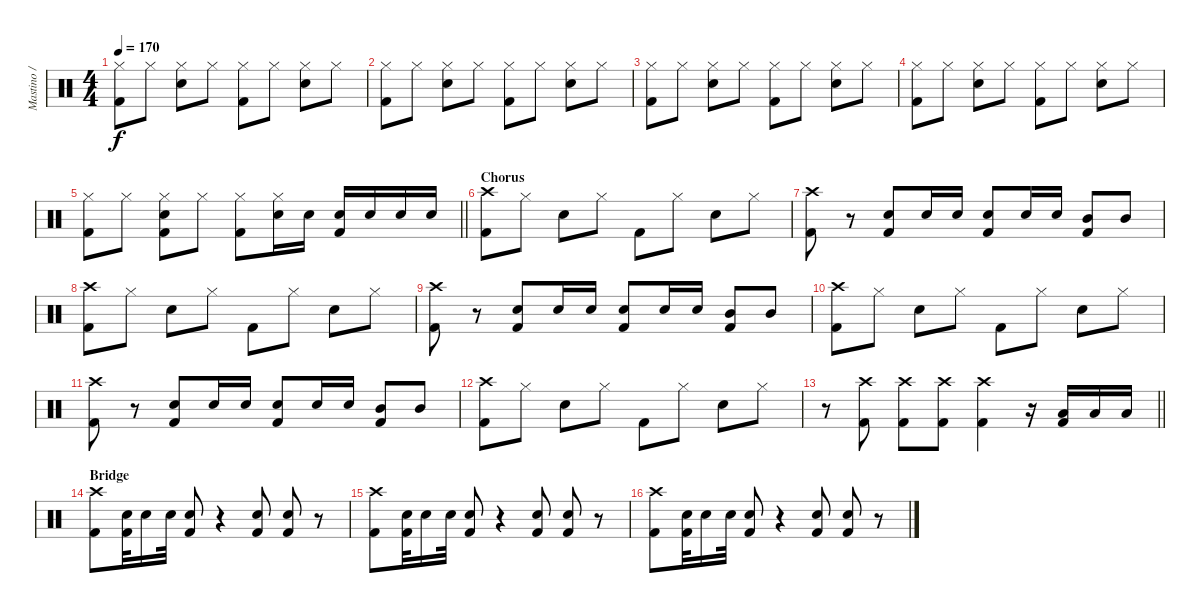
\track ("Mastino / Drums" "Mastino / ") {instrument percussion}
\staff {score}
\articulation defaults
\ts (4 4)
\tempo 170
\clef neutral
\ks c
("Hi-Hat (closed)" "Kick (hit) 2").8{dy f} "Hi-Hat (closed)".8 ("Hi-Hat (closed)" "Electric Snare (hit)").8 "Hi-Hat (closed)".8 ("Hi-Hat (closed)" "Kick (hit) 2").8 "Hi-Hat (closed)".8 ("Hi-Hat (closed)" "Electric Snare (hit)").8 "Hi-Hat (closed)".8 |
("Hi-Hat (closed)" "Kick (hit) 2").8 "Hi-Hat (closed)".8 ("Hi-Hat (closed)" "Electric Snare (hit)").8 "Hi-Hat (closed)".8 ("Hi-Hat (closed)" "Kick (hit) 2").8 "Hi-Hat (closed)".8 ("Hi-Hat (closed)" "Electric Snare (hit)").8 "Hi-Hat (closed)".8 |
("Hi-Hat (closed)" "Kick (hit) 2").8 "Hi-Hat (closed)".8 ("Hi-Hat (closed)" "Electric Snare (hit)").8 "Hi-Hat (closed)".8 ("Hi-Hat (closed)" "Kick (hit) 2").8 "Hi-Hat (closed)".8 ("Hi-Hat (closed)" "Electric Snare (hit)").8 "Hi-Hat (closed)".8 |
("Hi-Hat (closed)" "Kick (hit) 2").8 "Hi-Hat (closed)".8 ("Hi-Hat (closed)" "Electric Snare (hit)").8 "Hi-Hat (closed)".8 ("Hi-Hat (closed)" "Kick (hit) 2").8 "Hi-Hat (closed)".8 ("Hi-Hat (closed)" "Electric Snare (hit)").8 "Hi-Hat (closed)".8 |
\barLineRight lightlight
("Hi-Hat (closed)" "Kick (hit) 2").8 "Hi-Hat (closed)".8 ("Hi-Hat (closed)" "Electric Snare (hit)" "Kick (hit) 2").8 "Hi-Hat (closed)".8 ("Hi-Hat (closed)" "Kick (hit) 2").8 ("Hi-Hat (closed)" "Electric Snare (hit)").16 "Electric Snare (hit)".16 ("Electric Snare (hit)" "Kick (hit) 2").16 "Electric Snare (hit)".16 "Electric Snare (hit)".16 "Electric Snare (hit)".16 |
\section ("" "Chorus")
("Crash high (hit)" "Kick (hit) 2").8 "Hi-Hat (closed)".8 "Electric Snare (hit)".8 "Hi-Hat (closed)".8 "Kick (hit) 2".8 "Hi-Hat (closed)".8 "Electric Snare (hit)".8 "Hi-Hat (closed)".8 |
("Crash high (hit)" "Kick (hit) 2").8 r.8 ("Electric Snare (hit)" "Kick (hit) 2").8 "Electric Snare (hit)".16 "Electric Snare (hit)".16 ("Electric Snare (hit)" "Kick (hit) 2").8 "Electric Snare (hit)".16 "Electric Snare (hit)".16 ("Mid Tom (hit)" "Kick (hit) 2").8 "Mid Tom (hit)".8 |
("Crash high (hit)" "Kick (hit) 2").8 "Hi-Hat (closed)".8 "Electric Snare (hit)".8 "Hi-Hat (closed)".8 "Kick (hit) 2".8 "Hi-Hat (closed)".8 "Electric Snare (hit)".8 "Hi-Hat (closed)".8 |
("Crash high (hit)" "Kick (hit) 2").8 r.8 ("Electric Snare (hit)" "Kick (hit) 2").8 "Electric Snare (hit)".16 "Electric Snare (hit)".16 ("Electric Snare (hit)" "Kick (hit) 2").8 "Electric Snare (hit)".16 "Electric Snare (hit)".16 ("Mid Tom (hit)" "Kick (hit) 2").8 "Mid Tom (hit)".8 |
("Crash high (hit)" "Kick (hit) 2").8 "Hi-Hat (closed)".8 "Electric Snare (hit)".8 "Hi-Hat (closed)".8 "Kick (hit) 2".8 "Hi-Hat (closed)".8 "Electric Snare (hit)".8 "Hi-Hat (closed)".8 |
("Crash high (hit)" "Kick (hit) 2").8 r.8 ("Electric Snare (hit)" "Kick (hit) 2").8 "Electric Snare (hit)".16 "Electric Snare (hit)".16 ("Electric Snare (hit)" "Kick (hit) 2").8 "Electric Snare (hit)".16 "Electric Snare (hit)".16 ("Mid Tom (hit)" "Kick (hit) 2").8 "Mid Tom (hit)".8 |
("Crash high (hit)" "Kick (hit) 2").8 "Hi-Hat (closed)".8 "Electric Snare (hit)".8 "Hi-Hat (closed)".8 "Kick (hit) 2".8 "Hi-Hat (closed)".8 "Electric Snare (hit)".8 "Hi-Hat (closed)".8 |
\barLineRight lightlight
r.8 ("Crash high (hit)" "Kick (hit) 2").8 ("Crash high (hit)" "Kick (hit) 2").8 ("Crash high (hit)" "Kick (hit) 2").8 ("Crash high (hit)" "Kick (hit) 2").4 r.16 ("Low Tom (hit)" "Kick (hit) 2").16 "Low Tom (hit)".16 "Low Tom (hit)".16 |
\section ("" "Bridge")
("Crash high (hit)" "Kick (hit) 2").8 ("Electric Snare (hit)" "Kick (hit) 2").32 "Electric Snare (hit)".16 "Electric Snare (hit)".32 ("Electric Snare (hit)" "Kick (hit) 2").8 r.4 ("Electric Snare (hit)" "Kick (hit) 2").8 ("Electric Snare (hit)" "Kick (hit) 2").8 r.8 |
("Crash high (hit)" "Kick (hit) 2").8 ("Electric Snare (hit)" "Kick (hit) 2").32 "Electric Snare (hit)".16 "Electric Snare (hit)".32 ("Electric Snare (hit)" "Kick (hit) 2").8 r.4 ("Electric Snare (hit)" "Kick (hit) 2").8 ("Electric Snare (hit)" "Kick (hit) 2").8 r.8 |
("Crash high (hit)" "Kick (hit) 2").8 ("Electric Snare (hit)" "Kick (hit) 2").32 "Electric Snare (hit)".16 "Electric Snare (hit)".32 ("Electric Snare (hit)" "Kick (hit) 2").8 r.4 ("Electric Snare (hit)" "Kick (hit) 2").8 ("Electric Snare (hit)" "Kick (hit) 2").8 r.8
